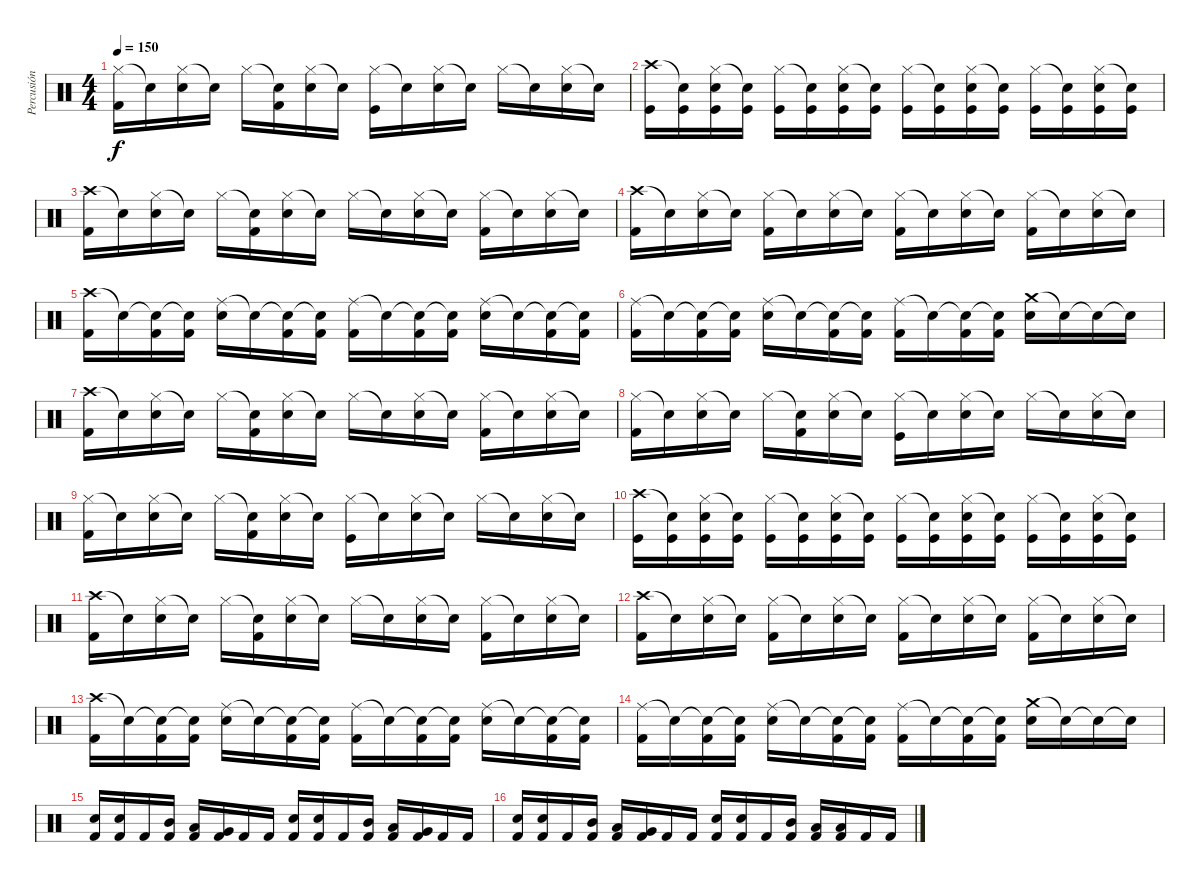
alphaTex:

\track ("Percusión" "Percusión") {instrument percussion}
\staff {score}
\articulation defaults
\ts (4 4)
\tempo 150
\clef neutral
\ks c
("Hi-Hat (closed)" "Kick (hit) 2").16{dy f} "Snare (hit)"{t}.16 ("Hi-Hat (closed)" "Electric Snare (hit)").16 "Snare (hit)"{t}.16 "Hi-Hat (closed)".16 ("Snare (hit)"{t} "Kick (hit) 2").16 ("Hi-Hat (closed)" "Electric Snare (hit)").16 "Snare (hit)"{t}.16 ("Hi-Hat (closed)" "Kick (hit)").16 "Snare (hit)"{t}.16 ("Hi-Hat (closed)" "Electric Snare (hit)").16 "Snare (hit)"{t}.16 "Hi-Hat (closed)".16 "Snare (hit)"{t}.16 ("Hi-Hat (closed)" "Electric Snare (hit)").16 "Snare (hit)"{t}.16 |
("Crash high (hit)" "Kick (hit)").16 ("Snare (hit)"{t} "Kick (hit)").16 ("Hi-Hat (closed)" "Electric Snare (hit)" "Kick (hit)").16 ("Snare (hit)"{t} "Kick (hit)").16 ("Hi-Hat (closed)" "Kick (hit)").16 ("Snare (hit)"{t} "Kick (hit)").16 ("Hi-Hat (closed)" "Electric Snare (hit)" "Kick (hit)").16 ("Snare (hit)"{t} "Kick (hit)").16 ("Hi-Hat (closed)" "Kick (hit)").16 ("Snare (hit)"{t} "Kick (hit)").16 ("Hi-Hat (closed)" "Electric Snare (hit)" "Kick (hit)").16 ("Snare (hit)"{t} "Kick (hit)").16 ("Hi-Hat (closed)" "Kick (hit)").16 ("Snare (hit)"{t} "Kick (hit)").16 ("Hi-Hat (closed)" "Electric Snare (hit)" "Kick (hit)").16 ("Snare (hit)"{t} "Kick (hit)").16 |
("Crash high (hit)" "Kick (hit) 2").16 "Snare (hit)"{t}.16 ("Hi-Hat (closed)" "Electric Snare (hit)").16 "Snare (hit)"{t}.16 "Hi-Hat (closed)".16 ("Snare (hit)"{t} "Kick (hit) 2").16 ("Hi-Hat (closed)" "Electric Snare (hit)").16 "Snare (hit)"{t}.16 "Hi-Hat (closed)".16 "Snare (hit)"{t}.16 ("Hi-Hat (closed)" "Electric Snare (hit)").16 "Snare (hit)"{t}.16 ("Hi-Hat (closed)" "Kick (hit) 2").16 "Snare (hit)"{t}.16 ("Hi-Hat (closed)" "Electric Snare (hit)").16 "Snare (hit)"{t}.16 |
("Crash high (hit)" "Kick (hit) 2").16 "Snare (hit)"{t}.16 ("Hi-Hat (closed)" "Electric Snare (hit)").16 "Snare (hit)"{t}.16 ("Hi-Hat (closed)" "Kick (hit) 2").16 "Snare (hit)"{t}.16 ("Hi-Hat (closed)" "Electric Snare (hit)").16 "Snare (hit)"{t}.16 ("Hi-Hat (closed)" "Kick (hit) 2").16 "Snare (hit)"{t}.16 ("Hi-Hat (closed)" "Electric Snare (hit)").16 "Snare (hit)"{t}.16 ("Hi-Hat (closed)" "Kick (hit) 2").16 "Snare (hit)"{t}.16 ("Hi-Hat (closed)" "Electric Snare (hit)").16 "Snare (hit)"{t}.16 |
("Crash high (hit)" "Kick (hit) 2").16 "Snare (hit)"{t}.16 ("Snare (hit)"{t} "Kick (hit) 2").16 ("Snare (hit)"{t} "Kick (hit) 2").16 ("Ride (middle)" "Electric Snare (hit)").16 "Snare (hit)"{t}.16 ("Snare (hit)"{t} "Kick (hit) 2").16 ("Snare (hit)"{t} "Kick (hit) 2").16 ("Ride (middle)" "Kick (hit) 2").16 "Snare (hit)"{t}.16 ("Snare (hit)"{t} "Kick (hit) 2").16 ("Snare (hit)"{t} "Kick (hit) 2").16 ("Ride (middle)" "Electric Snare (hit)").16 "Snare (hit)"{t}.16 ("Snare (hit)"{t} "Kick (hit) 2").16 ("Snare (hit)"{t} "Kick (hit) 2").16 |
("Ride (middle)" "Kick (hit) 2").16 "Snare (hit)"{t}.16 ("Snare (hit)"{t} "Kick (hit) 2").16 ("Snare (hit)"{t} "Kick (hit) 2").16 ("Ride (middle)" "Electric Snare (hit)").16 "Snare (hit)"{t}.16 ("Snare (hit)"{t} "Kick (hit) 2").16 ("Snare (hit)"{t} "Kick (hit) 2").16 ("Ride (middle)" "Kick (hit) 2").16 "Snare (hit)"{t}.16 ("Snare (hit)"{t} "Kick (hit) 2").16 ("Snare (hit)"{t} "Kick (hit) 2").16 ("Crash medium (hit)" "Electric Snare (hit)").16 "Snare (hit)"{t}.16 "Snare (hit)"{t}.16 "Snare (hit)"{t}.16 |
("Crash high (hit)" "Kick (hit) 2").16 "Snare (hit)"{t}.16 ("Hi-Hat (closed)" "Electric Snare (hit)").16 "Snare (hit)"{t}.16 "Hi-Hat (closed)".16 ("Snare (hit)"{t} "Kick (hit) 2").16 ("Hi-Hat (closed)" "Electric Snare (hit)").16 "Snare (hit)"{t}.16 "Hi-Hat (closed)".16 "Snare (hit)"{t}.16 ("Hi-Hat (closed)" "Electric Snare (hit)").16 "Snare (hit)"{t}.16 ("Hi-Hat (closed)" "Kick (hit) 2").16 "Snare (hit)"{t}.16 ("Hi-Hat (closed)" "Electric Snare (hit)").16 "Snare (hit)"{t}.16 |
("Hi-Hat (closed)" "Kick (hit) 2").16 "Snare (hit)"{t}.16 ("Hi-Hat (closed)" "Electric Snare (hit)").16 "Snare (hit)"{t}.16 "Hi-Hat (closed)".16 ("Snare (hit)"{t} "Kick (hit) 2").16 ("Hi-Hat (closed)" "Electric Snare (hit)").16 "Snare (hit)"{t}.16 ("Hi-Hat (closed)" "Kick (hit)").16 "Snare (hit)"{t}.16 ("Hi-Hat (closed)" "Electric Snare (hit)").16 "Snare (hit)"{t}.16 "Hi-Hat (closed)".16 "Snare (hit)"{t}.16 ("Hi-Hat (closed)" "Electric Snare (hit)").16 "Snare (hit)"{t}.16 |
("Hi-Hat (closed)" "Kick (hit) 2").16 "Snare (hit)"{t}.16 ("Hi-Hat (closed)" "Electric Snare (hit)").16 "Snare (hit)"{t}.16 "Hi-Hat (closed)".16 ("Snare (hit)"{t} "Kick (hit) 2").16 ("Hi-Hat (closed)" "Electric Snare (hit)").16 "Snare (hit)"{t}.16 ("Hi-Hat (closed)" "Kick (hit)").16 "Snare (hit)"{t}.16 ("Hi-Hat (closed)" "Electric Snare (hit)").16 "Snare (hit)"{t}.16 "Hi-Hat (closed)".16 "Snare (hit)"{t}.16 ("Hi-Hat (closed)" "Electric Snare (hit)").16 "Snare (hit)"{t}.16 |
("Crash high (hit)" "Kick (hit)").16 ("Snare (hit)"{t} "Kick (hit)").16 ("Hi-Hat (closed)" "Electric Snare (hit)" "Kick (hit)").16 ("Snare (hit)"{t} "Kick (hit)").16 ("Hi-Hat (closed)" "Kick (hit)").16 ("Snare (hit)"{t} "Kick (hit)").16 ("Hi-Hat (closed)" "Electric Snare (hit)" "Kick (hit)").16 ("Snare (hit)"{t} "Kick (hit)").16 ("Hi-Hat (closed)" "Kick (hit)").16 ("Snare (hit)"{t} "Kick (hit)").16 ("Hi-Hat (closed)" "Electric Snare (hit)" "Kick (hit)").16 ("Snare (hit)"{t} "Kick (hit)").16 ("Hi-Hat (closed)" "Kick (hit)").16 ("Snare (hit)"{t} "Kick (hit)").16 ("Hi-Hat (closed)" "Electric Snare (hit)" "Kick (hit)").16 ("Snare (hit)"{t} "Kick (hit)").16 |
("Crash high (hit)" "Kick (hit) 2").16 "Snare (hit)"{t}.16 ("Hi-Hat (closed)" "Electric Snare (hit)").16 "Snare (hit)"{t}.16 "Hi-Hat (closed)".16 ("Snare (hit)"{t} "Kick (hit) 2").16 ("Hi-Hat (closed)" "Electric Snare (hit)").16 "Snare (hit)"{t}.16 "Hi-Hat (closed)".16 "Snare (hit)"{t}.16 ("Hi-Hat (closed)" "Electric Snare (hit)").16 "Snare (hit)"{t}.16 ("Hi-Hat (closed)" "Kick (hit) 2").16 "Snare (hit)"{t}.16 ("Hi-Hat (closed)" "Electric Snare (hit)").16 "Snare (hit)"{t}.16 |
("Crash high (hit)" "Kick (hit) 2").16 "Snare (hit)"{t}.16 ("Hi-Hat (closed)" "Electric Snare (hit)").16 "Snare (hit)"{t}.16 ("Hi-Hat (closed)" "Kick (hit) 2").16 "Snare (hit)"{t}.16 ("Hi-Hat (closed)" "Electric Snare (hit)").16 "Snare (hit)"{t}.16 ("Hi-Hat (closed)" "Kick (hit) 2").16 "Snare (hit)"{t}.16 ("Hi-Hat (closed)" "Electric Snare (hit)").16 "Snare (hit)"{t}.16 ("Hi-Hat (closed)" "Kick (hit) 2").16 "Snare (hit)"{t}.16 ("Hi-Hat (closed)" "Electric Snare (hit)").16 "Snare (hit)"{t}.16 |
("Crash high (hit)" "Kick (hit) 2").16 "Snare (hit)"{t}.16 ("Snare (hit)"{t} "Kick (hit) 2").16 ("Snare (hit)"{t} "Kick (hit) 2").16 ("Ride (middle)" "Electric Snare (hit)").16 "Snare (hit)"{t}.16 ("Snare (hit)"{t} "Kick (hit) 2").16 ("Snare (hit)"{t} "Kick (hit) 2").16 ("Ride (middle)" "Kick (hit) 2").16 "Snare (hit)"{t}.16 ("Snare (hit)"{t} "Kick (hit) 2").16 ("Snare (hit)"{t} "Kick (hit) 2").16 ("Ride (middle)" "Electric Snare (hit)").16 "Snare (hit)"{t}.16 ("Snare (hit)"{t} "Kick (hit) 2").16 ("Snare (hit)"{t} "Kick (hit) 2").16 |
("Ride (middle)" "Kick (hit) 2").16 "Snare (hit)"{t}.16 ("Snare (hit)"{t} "Kick (hit) 2").16 ("Snare (hit)"{t} "Kick (hit) 2").16 ("Ride (middle)" "Electric Snare (hit)").16 "Snare (hit)"{t}.16 ("Snare (hit)"{t} "Kick (hit) 2").16 ("Snare (hit)"{t} "Kick (hit) 2").16 ("Ride (middle)" "Kick (hit) 2").16 "Snare (hit)"{t}.16 ("Snare (hit)"{t} "Kick (hit) 2").16 ("Snare (hit)"{t} "Kick (hit) 2").16 ("Crash medium (hit)" "Electric Snare (hit)").16 "Snare (hit)"{t}.16 "Snare (hit)"{t}.16 "Snare (hit)"{t}.16 |
("Electric Snare (hit)" "Kick (hit) 2").16 ("Electric Snare (hit)" "Kick (hit) 2").16 "Kick (hit) 2".16 ("Mid Tom (hit)" "Kick (hit) 2").16 ("Low Tom (hit)" "Kick (hit) 2").16 ("Very Low Tom (hit)" "Kick (hit) 2").16 "Kick (hit) 2".16 "Kick (hit) 2".16 ("Electric Snare (hit)" "Kick (hit) 2").16 ("Electric Snare (hit)" "Kick (hit) 2").16 "Kick (hit) 2".16 ("Mid Tom (hit)" "Kick (hit) 2").16 ("Low Tom (hit)" "Kick (hit) 2").16 ("Very Low Tom (hit)" "Kick (hit) 2").16 "Kick (hit) 2".16 "Kick (hit) 2".16 |
("Electric Snare (hit)" "Kick (hit) 2").16 ("Electric Snare (hit)" "Kick (hit) 2").16 "Kick (hit) 2".16 ("Mid Tom (hit)" "Kick (hit) 2").16 ("Low Tom (hit)" "Kick (hit) 2").16 ("Very Low Tom (hit)" "Kick (hit) 2").16 "Kick (hit) 2".16 "Kick (hit) 2".16 ("Electric Snare (hit)" "Kick (hit) 2").16 ("Electric Snare (hit)" "Kick (hit) 2").16 "Kick (hit) 2".16 ("Mid Tom (hit)" "Kick (hit) 2").16 ("Low Tom (hit)" "Kick (hit) 2").16 ("Low Tom (hit)" "Kick (hit) 2").16 "Kick (hit) 2".16 "Kick (hit) 2".16
